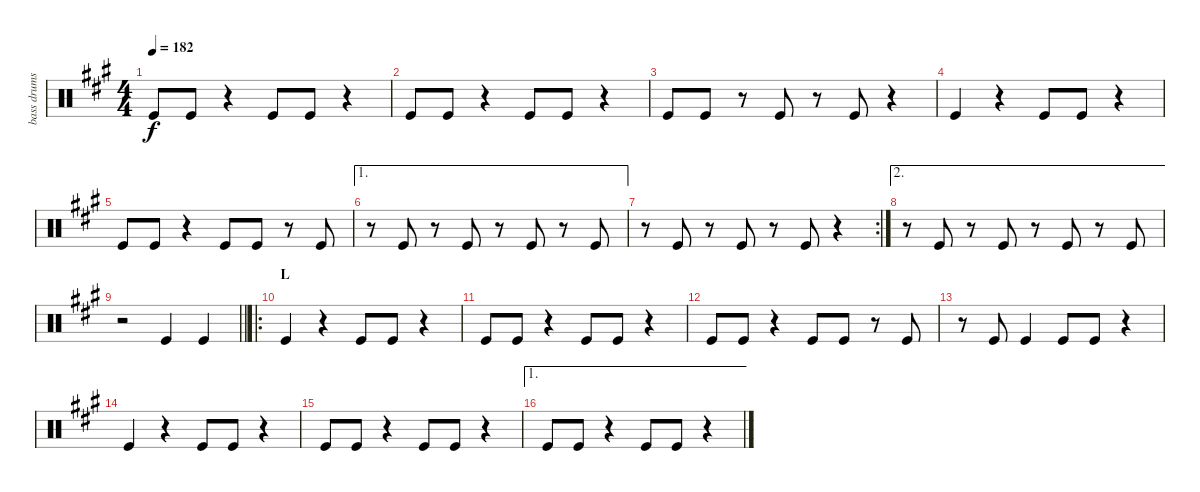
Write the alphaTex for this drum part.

\track ("bass drums" "bass drums") {instrument percussion}
\staff {score}
\articulation defaults
\ts (4 4)
\tempo 182
\clef neutral
\ks f#minor "Kick (hit)".8{dy f} "Kick (hit)".8
r.4 "Kick (hit)".8 "Kick (hit)".8 r.4 |
"Kick (hit)".8 "Kick (hit)".8 r.4 "Kick (hit)".8 "Kick (hit)".8 r.4 |
"Kick (hit)".8 "Kick (hit)".8 r.8 "Kick (hit)".8 r.8 "Kick (hit)".8 r.4 |
"Kick (hit)".4 r.4 "Kick (hit)".8 "Kick (hit)".8 r.4 |
"Kick (hit)".8 "Kick (hit)".8 r.4 "Kick (hit)".8 "Kick (hit)".8 r.8 "Kick (hit)".8 |
\ae 1
r.8 "Kick (hit)".8 r.8 "Kick (hit)".8 r.8 "Kick (hit)".8 r.8 "Kick (hit)".8 |
\rc 2
r.8 "Kick (hit)".8 r.8 "Kick (hit)".8 r.8 "Kick (hit)".8 r.4 |
\ae 2
r.8 "Kick (hit)".8 r.8 "Kick (hit)".8 r.8 "Kick (hit)".8 r.8 "Kick (hit)".8 |
\barLineRight lightlight
r.2 "Kick (hit)".4 "Kick (hit)".4 |
\ro
\section ("" "L")
"Kick (hit)".4 r.4 "Kick (hit)".8 "Kick (hit)".8 r.4 |
"Kick (hit)".8 "Kick (hit)".8 r.4 "Kick (hit)".8 "Kick (hit)".8 r.4 |
"Kick (hit)".8 "Kick (hit)".8 r.4 "Kick (hit)".8 "Kick (hit)".8 r.8 "Kick (hit)".8 |
r.8 "Kick (hit)".8 "Kick (hit)".4 "Kick (hit)".8 "Kick (hit)".8 r.4 |
"Kick (hit)".4 r.4 "Kick (hit)".8 "Kick (hit)".8 r.4 |
"Kick (hit)".8 "Kick (hit)".8 r.4 "Kick (hit)".8 "Kick (hit)".8 r.4 |
\ae 1 "Kick (hit)".8 "Kick (hit)".8
r.4 "Kick (hit)".8 "Kick (hit)".8 r.4
